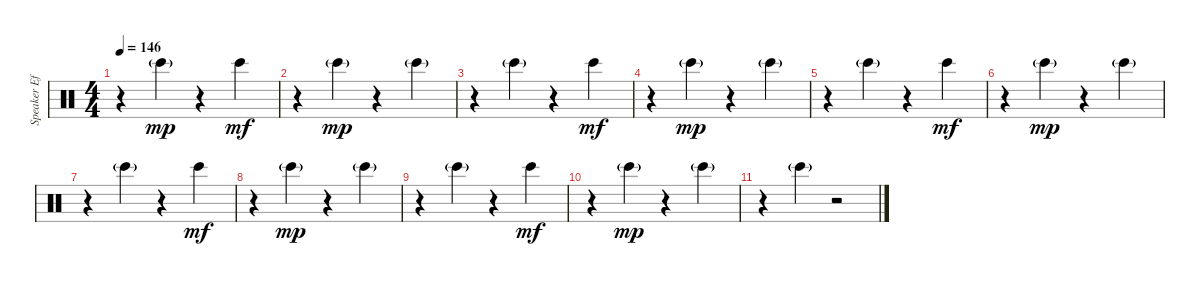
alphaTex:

\track ("Speaker Effects" "Speaker Ef") {instrument percussion}
\staff {score}
\articulation defaults
\ts (4 4)
\tempo 146
\clef neutral
\ks c
r.4{dy mp balance 8} "Bongo High (hit)"{g}.4{balance 4} r.4{balance 8} "Bongo High (hit)".4{dy mf balance 12} |
r.4{balance 8} "Bongo High (hit)"{g}.4{dy mp balance 4} r.4{balance 8} "Bongo High (hit)"{g}.4{balance 16} |
r.4{balance 8} "Bongo High (hit)"{g}.4{balance 4} r.4{balance 8} "Bongo High (hit)".4{dy mf balance 12} |
r.4{balance 8} "Bongo High (hit)"{g}.4{dy mp balance 4} r.4{balance 8} "Bongo High (hit)"{g}.4{balance 16} |
r.4{balance 8} "Bongo High (hit)"{g}.4{balance 4} r.4{balance 8} "Bongo High (hit)".4{dy mf balance 12} |
r.4{balance 8} "Bongo High (hit)"{g}.4{dy mp balance 4} r.4{balance 8} "Bongo High (hit)"{g}.4{balance 16} |
r.4{balance 8} "Bongo High (hit)"{g}.4{balance 4} r.4{balance 8} "Bongo High (hit)".4{dy mf balance 12} |
r.4{balance 8} "Bongo High (hit)"{g}.4{dy mp balance 4} r.4{balance 8} "Bongo High (hit)"{g}.4{balance 16} |
r.4{balance 8} "Bongo High (hit)"{g}.4{balance 4} r.4{balance 8} "Bongo High (hit)".4{dy mf balance 12} |
r.4{balance 8} "Bongo High (hit)"{g}.4{dy mp balance 4} r.4{balance 8} "Bongo High (hit)"{g}.4{balance 16} |
r.4{balance 8} "Bongo High (hit)"{g}.4{balance 4} r.2{balance 8}
